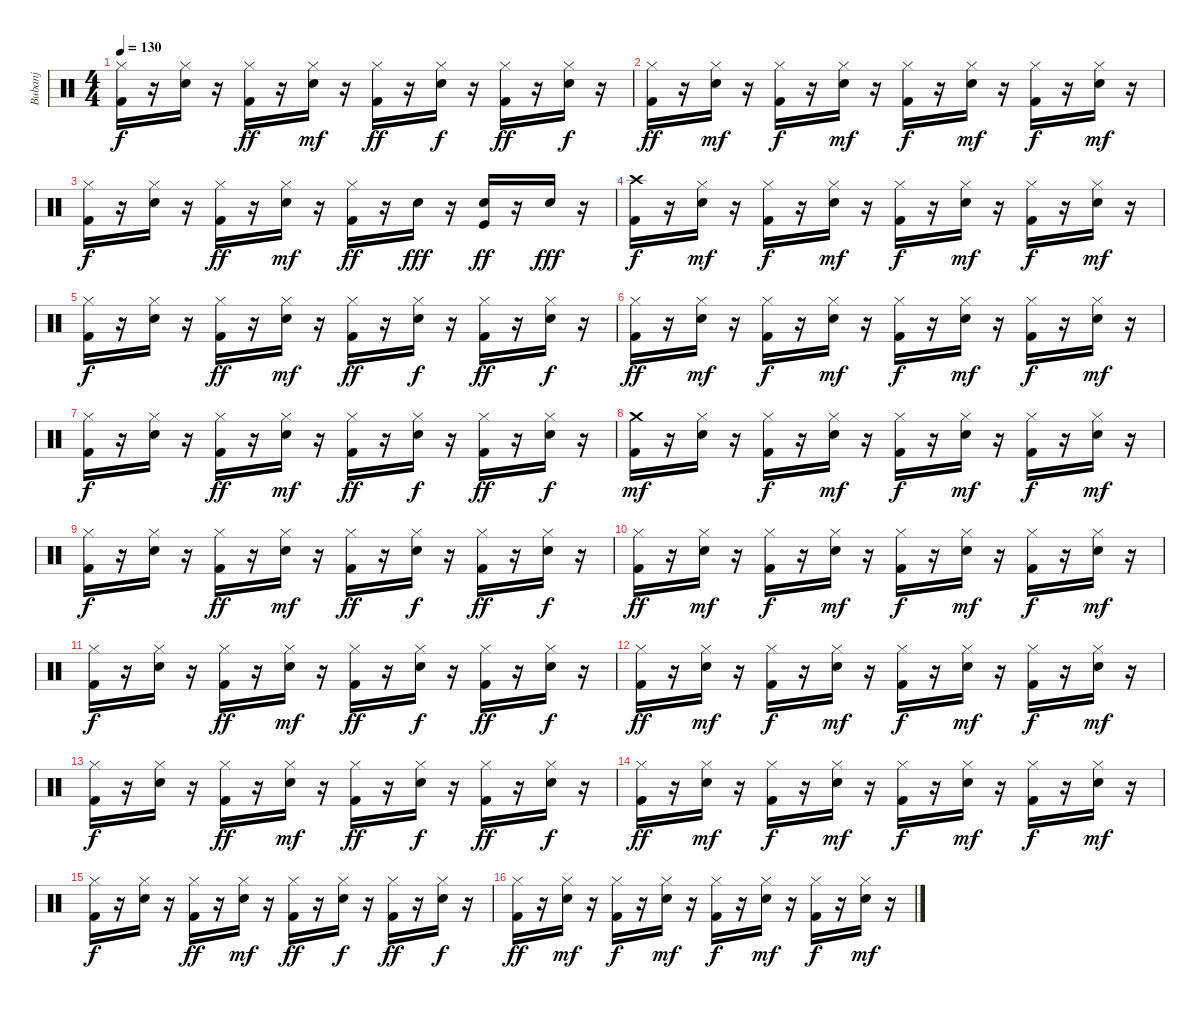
\track ("Bubanj" "Bubanj") {instrument percussion}
\staff {score}
\articulation defaults
\ts (4 4)
\tempo 130
\clef neutral
\ks c
("Kick (hit) 2" "Hi-Hat (closed)").16{dy f} r.16 ("Snare (hit) 2" "Hi-Hat (closed)").16 r.16 ("Kick (hit) 2" "Hi-Hat (closed)").16{dy ff} r.16 ("Snare (hit) 2" "Hi-Hat (closed)").16{dy mf} r.16 ("Kick (hit) 2" "Hi-Hat (closed)").16{dy ff} r.16 ("Snare (hit) 2" "Hi-Hat (closed)").16{dy f} r.16 ("Kick (hit) 2" "Hi-Hat (closed)").16{dy ff} r.16 ("Snare (hit) 2" "Hi-Hat (closed)").16{dy f} r.16 |
("Kick (hit) 2" "Hi-Hat (closed)").16{dy ff} r.16 ("Snare (hit) 2" "Hi-Hat (closed)").16{dy mf} r.16 ("Kick (hit) 2" "Hi-Hat (closed)").16{dy f} r.16 ("Snare (hit) 2" "Hi-Hat (closed)").16{dy mf} r.16 ("Kick (hit) 2" "Hi-Hat (closed)").16{dy f} r.16 ("Snare (hit) 2" "Hi-Hat (closed)").16{dy mf} r.16 ("Kick (hit) 2" "Hi-Hat (closed)").16{dy f} r.16 ("Snare (hit) 2" "Hi-Hat (closed)").16{dy mf} r.16 |
("Kick (hit) 2" "Hi-Hat (closed)").16{dy f} r.16 ("Snare (hit) 2" "Hi-Hat (closed)").16 r.16 ("Kick (hit) 2" "Hi-Hat (closed)").16{dy ff} r.16 ("Snare (hit) 2" "Hi-Hat (closed)").16{dy mf} r.16 ("Kick (hit) 2" "Hi-Hat (closed)").16{dy ff} r.16 "Snare (hit) 2".16{dy fff} r.16 ("Snare (hit) 2" "Kick (hit)").16{dy ff} r.16 "Snare (hit) 2".16{dy fff} r.16 |
("Kick (hit) 2" "Crash high (hit)").16{dy f} r.16 ("Snare (hit) 2" "Hi-Hat (closed)").16{dy mf} r.16 ("Kick (hit) 2" "Hi-Hat (closed)").16{dy f} r.16 ("Snare (hit) 2" "Hi-Hat (closed)").16{dy mf} r.16 ("Kick (hit) 2" "Hi-Hat (closed)").16{dy f} r.16 ("Snare (hit) 2" "Hi-Hat (closed)").16{dy mf} r.16 ("Kick (hit) 2" "Hi-Hat (closed)").16{dy f} r.16 ("Snare (hit) 2" "Hi-Hat (closed)").16{dy mf} r.16 |
("Kick (hit) 2" "Hi-Hat (closed)").16{dy f} r.16 ("Snare (hit) 2" "Hi-Hat (closed)").16 r.16 ("Kick (hit) 2" "Hi-Hat (closed)").16{dy ff} r.16 ("Snare (hit) 2" "Hi-Hat (closed)").16{dy mf} r.16 ("Kick (hit) 2" "Hi-Hat (closed)").16{dy ff} r.16 ("Snare (hit) 2" "Hi-Hat (closed)").16{dy f} r.16 ("Kick (hit) 2" "Hi-Hat (closed)").16{dy ff} r.16 ("Snare (hit) 2" "Hi-Hat (closed)").16{dy f} r.16 |
("Kick (hit) 2" "Hi-Hat (closed)").16{dy ff} r.16 ("Snare (hit) 2" "Hi-Hat (closed)").16{dy mf} r.16 ("Kick (hit) 2" "Hi-Hat (closed)").16{dy f} r.16 ("Snare (hit) 2" "Hi-Hat (closed)").16{dy mf} r.16 ("Kick (hit) 2" "Hi-Hat (closed)").16{dy f} r.16 ("Snare (hit) 2" "Hi-Hat (closed)").16{dy mf} r.16 ("Kick (hit) 2" "Hi-Hat (closed)").16{dy f} r.16 ("Snare (hit) 2" "Hi-Hat (closed)").16{dy mf} r.16 |
("Kick (hit) 2" "Hi-Hat (closed)").16{dy f} r.16 ("Snare (hit) 2" "Hi-Hat (closed)").16 r.16 ("Kick (hit) 2" "Hi-Hat (closed)").16{dy ff} r.16 ("Snare (hit) 2" "Hi-Hat (closed)").16{dy mf} r.16 ("Kick (hit) 2" "Hi-Hat (closed)").16{dy ff} r.16 ("Snare (hit) 2" "Hi-Hat (closed)").16{dy f} r.16 ("Kick (hit) 2" "Hi-Hat (closed)").16{dy ff} r.16 ("Snare (hit) 2" "Hi-Hat (closed)").16{dy f} r.16 |
("Kick (hit) 2" "Crash medium (hit)").16{dy mf} r.16 ("Snare (hit) 2" "Hi-Hat (closed)").16 r.16 ("Kick (hit) 2" "Hi-Hat (closed)").16{dy f} r.16 ("Snare (hit) 2" "Hi-Hat (closed)").16{dy mf} r.16 ("Kick (hit) 2" "Hi-Hat (closed)").16{dy f} r.16 ("Snare (hit) 2" "Hi-Hat (closed)").16{dy mf} r.16 ("Kick (hit) 2" "Hi-Hat (closed)").16{dy f} r.16 ("Snare (hit) 2" "Hi-Hat (closed)").16{dy mf} r.16 |
("Kick (hit) 2" "Hi-Hat (closed)").16{dy f} r.16 ("Snare (hit) 2" "Hi-Hat (closed)").16 r.16 ("Kick (hit) 2" "Hi-Hat (closed)").16{dy ff} r.16 ("Snare (hit) 2" "Hi-Hat (closed)").16{dy mf} r.16 ("Kick (hit) 2" "Hi-Hat (closed)").16{dy ff} r.16 ("Snare (hit) 2" "Hi-Hat (closed)").16{dy f} r.16 ("Kick (hit) 2" "Hi-Hat (closed)").16{dy ff} r.16 ("Snare (hit) 2" "Hi-Hat (closed)").16{dy f} r.16 |
("Kick (hit) 2" "Hi-Hat (closed)").16{dy ff} r.16 ("Snare (hit) 2" "Hi-Hat (closed)").16{dy mf} r.16 ("Kick (hit) 2" "Hi-Hat (closed)").16{dy f} r.16 ("Snare (hit) 2" "Hi-Hat (closed)").16{dy mf} r.16 ("Kick (hit) 2" "Hi-Hat (closed)").16{dy f} r.16 ("Snare (hit) 2" "Hi-Hat (closed)").16{dy mf} r.16 ("Kick (hit) 2" "Hi-Hat (closed)").16{dy f} r.16 ("Snare (hit) 2" "Hi-Hat (closed)").16{dy mf} r.16 |
("Kick (hit) 2" "Hi-Hat (closed)").16{dy f} r.16 ("Snare (hit) 2" "Hi-Hat (closed)").16 r.16 ("Kick (hit) 2" "Hi-Hat (closed)").16{dy ff} r.16 ("Snare (hit) 2" "Hi-Hat (closed)").16{dy mf} r.16 ("Kick (hit) 2" "Hi-Hat (closed)").16{dy ff} r.16 ("Snare (hit) 2" "Hi-Hat (closed)").16{dy f} r.16 ("Kick (hit) 2" "Hi-Hat (closed)").16{dy ff} r.16 ("Snare (hit) 2" "Hi-Hat (closed)").16{dy f} r.16 |
("Kick (hit) 2" "Hi-Hat (closed)").16{dy ff} r.16 ("Snare (hit) 2" "Hi-Hat (closed)").16{dy mf} r.16 ("Kick (hit) 2" "Hi-Hat (closed)").16{dy f} r.16 ("Snare (hit) 2" "Hi-Hat (closed)").16{dy mf} r.16 ("Kick (hit) 2" "Hi-Hat (closed)").16{dy f} r.16 ("Snare (hit) 2" "Hi-Hat (closed)").16{dy mf} r.16 ("Kick (hit) 2" "Hi-Hat (closed)").16{dy f} r.16 ("Snare (hit) 2" "Hi-Hat (closed)").16{dy mf} r.16 |
("Kick (hit) 2" "Hi-Hat (closed)").16{dy f} r.16 ("Snare (hit) 2" "Hi-Hat (closed)").16 r.16 ("Kick (hit) 2" "Hi-Hat (closed)").16{dy ff} r.16 ("Snare (hit) 2" "Hi-Hat (closed)").16{dy mf} r.16 ("Kick (hit) 2" "Hi-Hat (closed)").16{dy ff} r.16 ("Snare (hit) 2" "Hi-Hat (closed)").16{dy f} r.16 ("Kick (hit) 2" "Hi-Hat (closed)").16{dy ff} r.16 ("Snare (hit) 2" "Hi-Hat (closed)").16{dy f} r.16 |
("Kick (hit) 2" "Hi-Hat (closed)").16{dy ff} r.16 ("Snare (hit) 2" "Hi-Hat (closed)").16{dy mf} r.16 ("Kick (hit) 2" "Hi-Hat (closed)").16{dy f} r.16 ("Snare (hit) 2" "Hi-Hat (closed)").16{dy mf} r.16 ("Kick (hit) 2" "Hi-Hat (closed)").16{dy f} r.16 ("Snare (hit) 2" "Hi-Hat (closed)").16{dy mf} r.16 ("Kick (hit) 2" "Hi-Hat (closed)").16{dy f} r.16 ("Snare (hit) 2" "Hi-Hat (closed)").16{dy mf} r.16 |
("Kick (hit) 2" "Hi-Hat (closed)").16{dy f} r.16 ("Snare (hit) 2" "Hi-Hat (closed)").16 r.16 ("Kick (hit) 2" "Hi-Hat (closed)").16{dy ff} r.16 ("Snare (hit) 2" "Hi-Hat (closed)").16{dy mf} r.16 ("Kick (hit) 2" "Hi-Hat (closed)").16{dy ff} r.16 ("Snare (hit) 2" "Hi-Hat (closed)").16{dy f} r.16 ("Kick (hit) 2" "Hi-Hat (closed)").16{dy ff} r.16 ("Snare (hit) 2" "Hi-Hat (closed)").16{dy f} r.16 |
("Kick (hit) 2" "Hi-Hat (closed)").16{dy ff} r.16 ("Snare (hit) 2" "Hi-Hat (closed)").16{dy mf} r.16 ("Kick (hit) 2" "Hi-Hat (closed)").16{dy f} r.16 ("Snare (hit) 2" "Hi-Hat (closed)").16{dy mf} r.16 ("Kick (hit) 2" "Hi-Hat (closed)").16{dy f} r.16 ("Snare (hit) 2" "Hi-Hat (closed)").16{dy mf} r.16 ("Kick (hit) 2" "Hi-Hat (closed)").16{dy f} r.16 ("Snare (hit) 2" "Hi-Hat (closed)").16{dy mf} r.16
